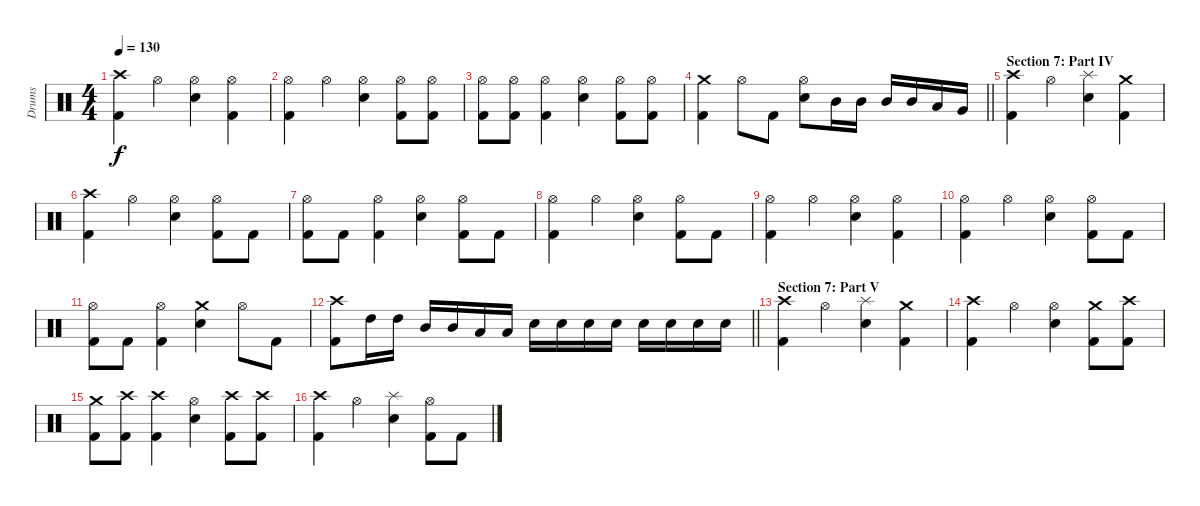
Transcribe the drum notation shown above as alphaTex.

\track ("Drums" "Drums") {instrument percussion}
\staff {score}
\articulation defaults
\ts (4 4)
\tempo 130
\clef neutral
\ks c
("Crash high (hit)" "Kick (hit) 2").4{dy f} "Hi-Hat (open)".4 ("Hi-Hat (open)" "Electric Snare (hit)").4 ("Hi-Hat (open)" "Kick (hit) 2").4 |
("Hi-Hat (open)" "Kick (hit) 2").4 "Hi-Hat (open)".4 ("Hi-Hat (open)" "Electric Snare (hit)").4 ("Hi-Hat (open)" "Kick (hit) 2").8 ("Hi-Hat (open)" "Kick (hit) 2").8 |
("Hi-Hat (open)" "Kick (hit) 2").8 ("Hi-Hat (open)" "Kick (hit) 2").8 ("Hi-Hat (open)" "Kick (hit) 2").4 ("Hi-Hat (open)" "Electric Snare (hit)").4 ("Hi-Hat (open)" "Kick (hit) 2").8 ("Hi-Hat (open)" "Kick (hit) 2").8 |
\barLineRight lightlight
("Crash medium (hit)" "Kick (hit) 2").4 "Hi-Hat (open)".8 "Kick (hit) 2".8 ("Hi-Hat (open)" "Electric Snare (hit)").8 "Mid Tom (hit)".16 "Mid Tom (hit)".16 "Mid Tom (hit)".16 "Mid Tom (hit)".16 "Low Tom (hit)".16 "Very Low Tom (hit)".16 |
\section ("" "Section 7: Part IV")
("Crash high (hit)" "Kick (hit) 2").4 "Hi-Hat (open)".4 ("Splash (hit)" "Electric Snare (hit)").4 ("Crash medium (hit)" "Kick (hit) 2").4 |
("Crash high (hit)" "Kick (hit) 2").4 "Hi-Hat (open)".4 ("Hi-Hat (open)" "Electric Snare (hit)").4 ("Hi-Hat (open)" "Kick (hit) 2").8 "Kick (hit) 2".8 |
("Hi-Hat (open)" "Kick (hit) 2").8 "Kick (hit) 2".8 ("Hi-Hat (open)" "Kick (hit) 2").4 ("Hi-Hat (open)" "Electric Snare (hit)").4 ("Hi-Hat (open)" "Kick (hit) 2").8 "Kick (hit) 2".8 |
("Hi-Hat (open)" "Kick (hit) 2").4 "Hi-Hat (open)".4 ("Hi-Hat (open)" "Electric Snare (hit)").4 ("Hi-Hat (open)" "Kick (hit) 2").8 "Kick (hit) 2".8 |
("Hi-Hat (open)" "Kick (hit) 2").4 "Hi-Hat (open)".4 ("Hi-Hat (open)" "Electric Snare (hit)").4 ("Hi-Hat (open)" "Kick (hit) 2").4 |
("Hi-Hat (open)" "Kick (hit) 2").4 "Hi-Hat (open)".4 ("Hi-Hat (open)" "Electric Snare (hit)").4 ("Hi-Hat (open)" "Kick (hit) 2").8 "Kick (hit) 2".8 |
("Hi-Hat (open)" "Kick (hit) 2").8 "Kick (hit) 2".8 ("Hi-Hat (open)" "Kick (hit) 2").4 ("Crash medium (hit)" "Electric Snare (hit)").4 "Hi-Hat (open)".8 "Kick (hit) 2".8 |
\barLineRight lightlight
("Crash high (hit)" "Kick (hit) 2").8 "High Tom (hit)".16 "High Tom (hit)".16 "Mid Tom (hit)".16 "Mid Tom (hit)".16 "Low Tom (hit)".16 "Low Tom (hit)".16 "Electric Snare (hit)".16 "Electric Snare (hit)".16 "Electric Snare (hit)".16 "Electric Snare (hit)".16 "Electric Snare (hit)".16 "Electric Snare (hit)".16 "Electric Snare (hit)".16 "Electric Snare (hit)".16 |
\section ("" "Section 7: Part V")
("Crash high (hit)" "Kick (hit) 2").4 "Hi-Hat (open)".4 ("Splash (hit)" "Electric Snare (hit)").4 ("Crash medium (hit)" "Kick (hit) 2").4 |
("Crash high (hit)" "Kick (hit) 2").4 "Hi-Hat (open)".4 ("Hi-Hat (open)" "Electric Snare (hit)").4 ("Crash medium (hit)" "Kick (hit) 2").8 ("Crash high (hit)" "Kick (hit) 2").8 |
("Crash medium (hit)" "Kick (hit) 2").8 ("Crash high (hit)" "Kick (hit) 2").8 ("Crash high (hit)" "Kick (hit) 2").4 ("Hi-Hat (open)" "Electric Snare (hit)").4 ("Crash high (hit)" "Kick (hit) 2").8 ("Crash high (hit)" "Kick (hit) 2").8 |
("Crash high (hit)" "Kick (hit) 2").4 "Hi-Hat (open)".4 ("Splash (hit)" "Electric Snare (hit)").4 ("Hi-Hat (open)" "Kick (hit) 2").8 "Kick (hit) 2".8
